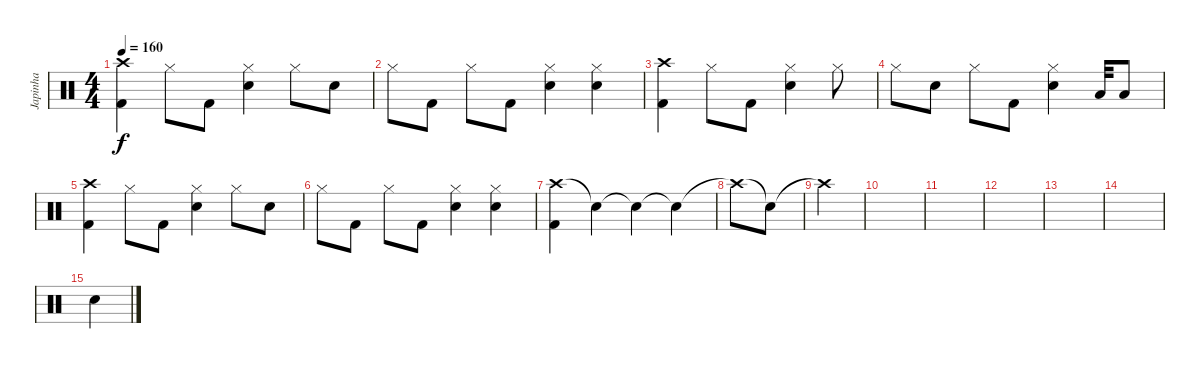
\track ("Japinha" "Japinha") {instrument percussion}
\staff {score}
\articulation defaults
\ts (4 4)
\tempo 160
\clef neutral
\ks c
("Crash high (hit)" "Kick (hit) 2").4{dy f} "Hi-Hat (closed)".8 "Kick (hit) 2".8 ("Hi-Hat (closed)" "Snare (hit) 2").4 "Hi-Hat (closed)".8 "Snare (hit) 2".8 |
"Hi-Hat (closed)".8 "Kick (hit) 2".8 "Hi-Hat (closed)".8 "Kick (hit) 2".8 ("Hi-Hat (closed)" "Snare (hit) 2").4 ("Hi-Hat (closed)" "Snare (hit) 2").4 |
("Crash high (hit)" "Kick (hit) 2").4 "Hi-Hat (closed)".8 "Kick (hit) 2".8 ("Hi-Hat (closed)" "Snare (hit) 2").4 "Hi-Hat (closed)".8 |
"Hi-Hat (closed)".8 "Snare (hit) 2".8 "Hi-Hat (closed)".8 "Kick (hit) 2".8 ("Hi-Hat (closed)" "Snare (hit) 2").4 "Low Tom (hit)".32 "Low Tom (hit)".8 |
("Crash high (hit)" "Kick (hit) 2").4 "Hi-Hat (closed)".8 "Kick (hit) 2".8 ("Hi-Hat (closed)" "Snare (hit) 2").4 "Hi-Hat (closed)".8 "Snare (hit) 2".8 |
"Hi-Hat (closed)".8 "Kick (hit) 2".8 "Hi-Hat (closed)".8 "Kick (hit) 2".8 ("Hi-Hat (closed)" "Snare (hit) 2").4 ("Hi-Hat (closed)" "Snare (hit) 2").4 |
("Crash high (hit)" "Kick (hit) 2").4 "Snare (hit)"{t}.4 "Snare (hit)"{t}.4 "Snare (hit)"{t}.4 |
"Crash high (hit)"{t}.8 "Snare (hit)"{t}.8 |
"Crash high (hit)"{t}.4 |
|
|
|
|
|
"Snare (hit)".4
